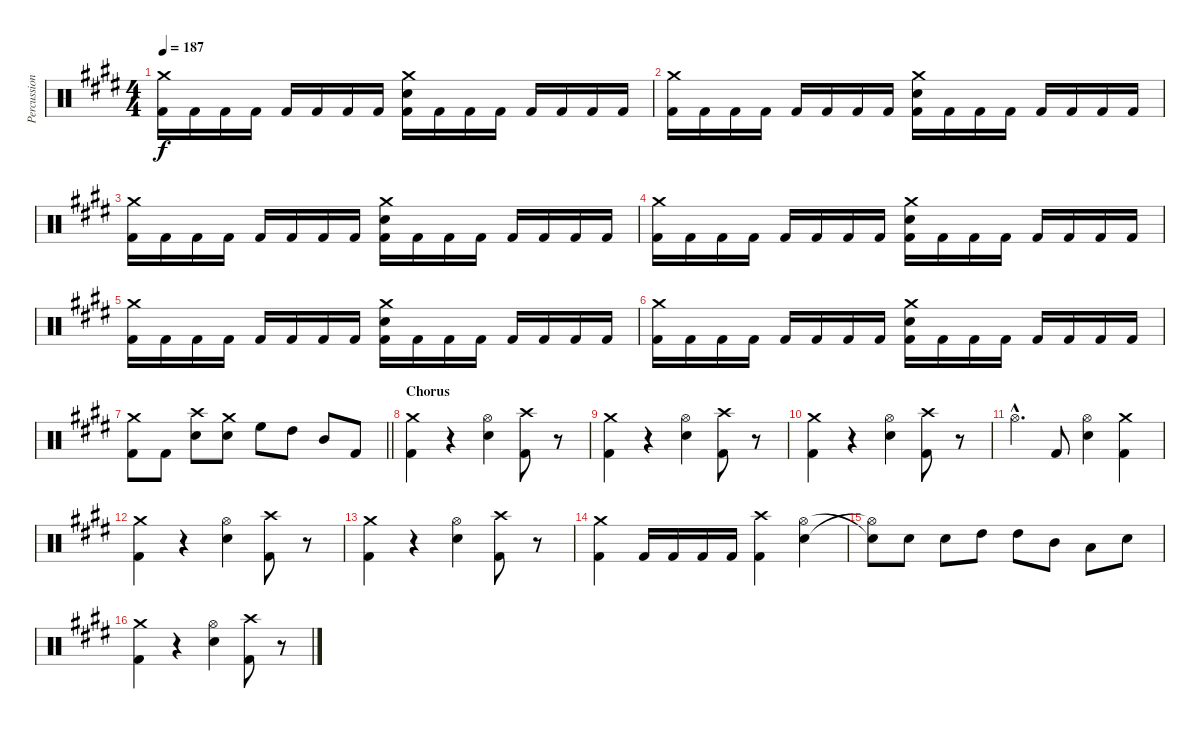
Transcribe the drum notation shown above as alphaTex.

\track ("Percussion" "Percussion") {instrument percussion}
\staff {score}
\articulation defaults
\ts (4 4)
\tempo 187
\clef neutral
\ks e
("Crash medium (hit)" "Kick (hit) 2").16{dy f} "Kick (hit) 2".16 "Kick (hit) 2".16 "Kick (hit) 2".16 "Kick (hit) 2".16 "Kick (hit) 2".16 "Kick (hit) 2".16 "Kick (hit) 2".16 ("Crash medium (hit)" "Snare (hit) 2" "Kick (hit) 2").16 "Kick (hit) 2".16 "Kick (hit) 2".16 "Kick (hit) 2".16 "Kick (hit) 2".16 "Kick (hit) 2".16 "Kick (hit) 2".16 "Kick (hit) 2".16 |
("Crash medium (hit)" "Kick (hit) 2").16 "Kick (hit) 2".16 "Kick (hit) 2".16 "Kick (hit) 2".16 "Kick (hit) 2".16 "Kick (hit) 2".16 "Kick (hit) 2".16 "Kick (hit) 2".16 ("Crash medium (hit)" "Snare (hit) 2" "Kick (hit) 2").16 "Kick (hit) 2".16 "Kick (hit) 2".16 "Kick (hit) 2".16 "Kick (hit) 2".16 "Kick (hit) 2".16 "Kick (hit) 2".16 "Kick (hit) 2".16 |
("Crash medium (hit)" "Kick (hit) 2").16 "Kick (hit) 2".16 "Kick (hit) 2".16 "Kick (hit) 2".16 "Kick (hit) 2".16 "Kick (hit) 2".16 "Kick (hit) 2".16 "Kick (hit) 2".16 ("Crash medium (hit)" "Snare (hit) 2" "Kick (hit) 2").16 "Kick (hit) 2".16 "Kick (hit) 2".16 "Kick (hit) 2".16 "Kick (hit) 2".16 "Kick (hit) 2".16 "Kick (hit) 2".16 "Kick (hit) 2".16 |
("Crash medium (hit)" "Kick (hit) 2").16 "Kick (hit) 2".16 "Kick (hit) 2".16 "Kick (hit) 2".16 "Kick (hit) 2".16 "Kick (hit) 2".16 "Kick (hit) 2".16 "Kick (hit) 2".16 ("Crash medium (hit)" "Snare (hit) 2" "Kick (hit) 2").16 "Kick (hit) 2".16 "Kick (hit) 2".16 "Kick (hit) 2".16 "Kick (hit) 2".16 "Kick (hit) 2".16 "Kick (hit) 2".16 "Kick (hit) 2".16 |
("Crash medium (hit)" "Kick (hit) 2").16 "Kick (hit) 2".16 "Kick (hit) 2".16 "Kick (hit) 2".16 "Kick (hit) 2".16 "Kick (hit) 2".16 "Kick (hit) 2".16 "Kick (hit) 2".16 ("Crash medium (hit)" "Snare (hit) 2" "Kick (hit) 2").16 "Kick (hit) 2".16 "Kick (hit) 2".16 "Kick (hit) 2".16 "Kick (hit) 2".16 "Kick (hit) 2".16 "Kick (hit) 2".16 "Kick (hit) 2".16 |
("Crash medium (hit)" "Kick (hit) 2").16 "Kick (hit) 2".16 "Kick (hit) 2".16 "Kick (hit) 2".16 "Kick (hit) 2".16 "Kick (hit) 2".16 "Kick (hit) 2".16 "Kick (hit) 2".16 ("Crash medium (hit)" "Snare (hit) 2" "Kick (hit) 2").16 "Kick (hit) 2".16 "Kick (hit) 2".16 "Kick (hit) 2".16 "Kick (hit) 2".16 "Kick (hit) 2".16 "Kick (hit) 2".16 "Kick (hit) 2".16 |
\barLineRight lightlight
("Crash medium (hit)" "Kick (hit) 2").8 "Kick (hit) 2".8 ("Crash high (hit)" "Snare (hit) 2").8 ("Crash medium (hit)" "Snare (hit) 2").8 "High Floor Tom (hit)".8 "High Tom (hit)".8 "Mid Tom (hit)".8 "Kick (hit) 2".8 |
\section ("" "Chorus")
("Crash medium (hit)" "Kick (hit) 2").4 r.4 ("Hi-Hat (open)" "Snare (hit) 2").4 ("Crash high (hit)" "Kick (hit) 2").8 r.8 |
("Crash medium (hit)" "Kick (hit) 2").4 r.4 ("Hi-Hat (open)" "Snare (hit) 2").4 ("Crash high (hit)" "Kick (hit) 2").8 r.8 |
("Crash medium (hit)" "Kick (hit) 2").4 r.4 ("Hi-Hat (open)" "Snare (hit) 2").4 ("Crash high (hit)" "Kick (hit) 2").8 r.8 |
"Hi-Hat (open)"{hac}.4{d} "Kick (hit) 2".8 ("Hi-Hat (open)" "Snare (hit) 2").4 ("Crash medium (hit)" "Kick (hit) 2").4 |
("Crash medium (hit)" "Kick (hit) 2").4 r.4 ("Hi-Hat (open)" "Snare (hit) 2").4 ("Crash high (hit)" "Kick (hit) 2").8 r.8 |
("Crash medium (hit)" "Kick (hit) 2").4 r.4 ("Hi-Hat (open)" "Snare (hit) 2").4 ("Crash high (hit)" "Kick (hit) 2").8 r.8 |
("Crash medium (hit)" "Kick (hit) 2").4 "Kick (hit) 2".16 "Kick (hit) 2".16 "Kick (hit) 2".16 "Kick (hit) 2".16 ("Crash high (hit)" "Kick (hit) 2").4 ("Snare (hit) 2" "Hi-Hat (open)").4 |
("Hi-Hat (open)"{t} "Snare (hit) 2"{t}).8 "Snare (hit) 2".8 "Snare (hit) 2".8 "High Tom (hit)".8 "High Tom (hit)".8 "Mid Tom (hit)".8 "Low Tom (hit)".8 "Snare (hit) 2".8 |
("Crash medium (hit)" "Kick (hit) 2").4 r.4 ("Hi-Hat (open)" "Snare (hit) 2").4 ("Crash high (hit)" "Kick (hit) 2").8 r.8
